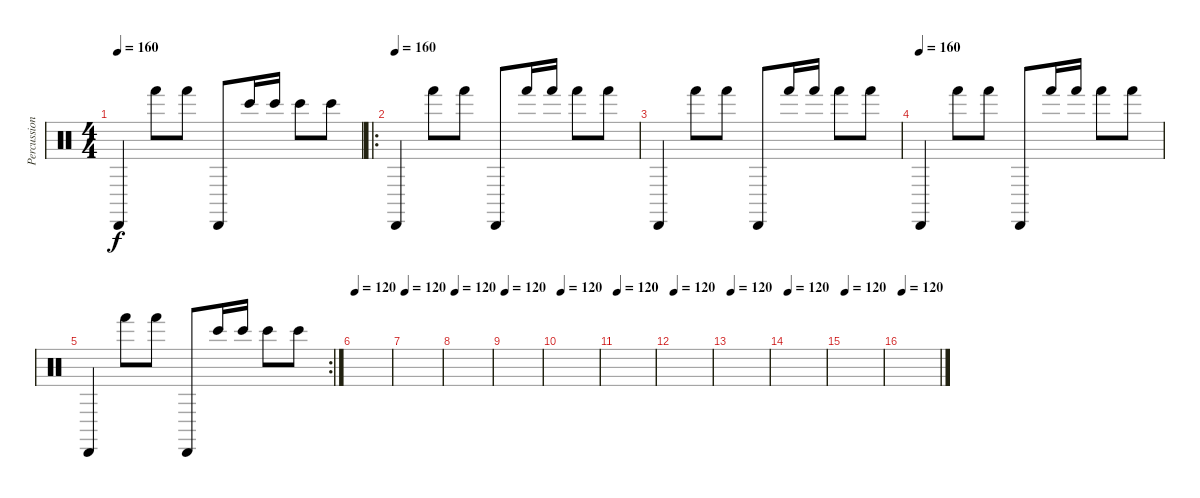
\track ("Percussions" "Percussion") {instrument percussion}
\staff {score}
\articulation defaults
\ts (4 4)
\tempo 160
\clef neutral
\ks c "Cabasa (hit)".4{dy f} "Hand (hit)".8 "Hand (hit)".8 "Cabasa (hit)".8 "Bongo High (hit)".16 "Bongo High (hit)".16 "Bongo High (hit)".8 "Bongo High (hit)".8
|
\ro
\tempo (160)
"Cabasa (hit)".4 "Hand (hit)".8 "Hand (hit)".8 "Cabasa (hit)".8 "Hand (hit)".16 "Hand (hit)".16 "Hand (hit)".8 "Hand (hit)".8 |
"Cabasa (hit)".4 "Hand (hit)".8 "Hand (hit)".8 "Cabasa (hit)".8 "Hand (hit)".16 "Hand (hit)".16 "Hand (hit)".8 "Hand (hit)".8 |
\tempo (160)
"Cabasa (hit)".4 "Hand (hit)".8 "Hand (hit)".8 "Cabasa (hit)".8 "Hand (hit)".16 "Hand (hit)".16 "Hand (hit)".8 "Hand (hit)".8 |
\rc 2 "Cabasa (hit)".4 "Hand (hit)".8 "Hand (hit)".8 "Cabasa (hit)".8 "Bongo High (hit)".16 "Bongo High (hit)".16 "Bongo High (hit)".8 "Bongo High (hit)".8
|
\tempo 120
|
\tempo 120
|
\tempo 120
|
\tempo 120
|
\tempo 120
|
\tempo 120
|
\tempo 120
|
\tempo 120
|
\tempo 120
|
\tempo 120
|
\tempo 120
